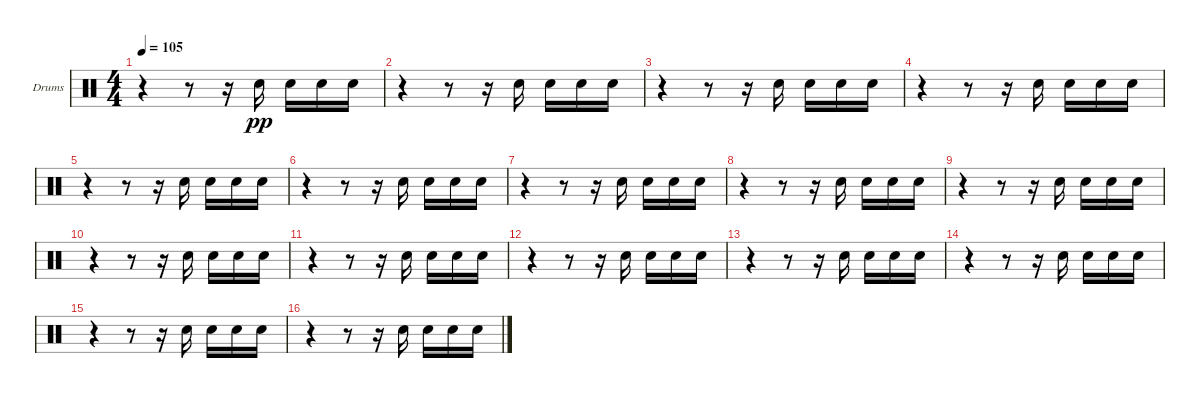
\defaultSystemsLayout 4
\bracketExtendMode groupsimilarinstruments
\firstSystemTrackNameOrientation horizontal
\otherSystemsTrackNameOrientation horizontal
\track ("Drumkit" "Drums") {instrument percussion}
\staff {score}
\articulation defaults
\ts (4 4)
\tempo 105
\clef neutral
\scale
0.333333
\ks c
r.4{dy pp} r.8 r.16 "Snare (hit) 2".16 "Snare (hit) 2".16 "Snare (hit) 2".16 "Snare (hit) 2".16 |
\scale
0.333333 r.4 r.8 r.16 "Snare (hit) 2".16 "Snare (hit) 2".16 "Snare (hit) 2".16 "Snare (hit) 2".16 |
\scale
0.333333 r.4 r.8 r.16 "Snare (hit) 2".16 "Snare (hit) 2".16 "Snare (hit) 2".16 "Snare (hit) 2".16 |
\scale
0.333333 r.4 r.8 r.16 "Snare (hit) 2".16 "Snare (hit) 2".16 "Snare (hit) 2".16 "Snare (hit) 2".16 |
\scale
0.333333 r.4 r.8 r.16 "Snare (hit) 2".16 "Snare (hit) 2".16 "Snare (hit) 2".16 "Snare (hit) 2".16 |
\scale
0.333333 r.4 r.8 r.16 "Snare (hit) 2".16 "Snare (hit) 2".16 "Snare (hit) 2".16 "Snare (hit) 2".16 |
\scale
0.333333 r.4 r.8 r.16 "Snare (hit) 2".16 "Snare (hit) 2".16 "Snare (hit) 2".16 "Snare (hit) 2".16 |
\scale
0.333333 r.4 r.8 r.16 "Snare (hit) 2".16 "Snare (hit) 2".16 "Snare (hit) 2".16 "Snare (hit) 2".16 |
\scale
0.333333 r.4 r.8 r.16 "Snare (hit) 2".16 "Snare (hit) 2".16 "Snare (hit) 2".16 "Snare (hit) 2".16 |
\scale
0.333333 r.4 r.8 r.16 "Snare (hit) 2".16 "Snare (hit) 2".16 "Snare (hit) 2".16 "Snare (hit) 2".16 |
\scale
0.333333 r.4 r.8 r.16 "Snare (hit) 2".16 "Snare (hit) 2".16 "Snare (hit) 2".16 "Snare (hit) 2".16 |
\scale
0.333333 r.4 r.8 r.16 "Snare (hit) 2".16 "Snare (hit) 2".16 "Snare (hit) 2".16 "Snare (hit) 2".16 |
\scale
0.333333 r.4 r.8 r.16 "Snare (hit) 2".16 "Snare (hit) 2".16 "Snare (hit) 2".16 "Snare (hit) 2".16 |
\scale
0.333333 r.4 r.8 r.16 "Snare (hit) 2".16 "Snare (hit) 2".16 "Snare (hit) 2".16 "Snare (hit) 2".16 |
\scale
0.333333 r.4 r.8 r.16 "Snare (hit) 2".16 "Snare (hit) 2".16 "Snare (hit) 2".16 "Snare (hit) 2".16 |
\scale
0.333333 r.4 r.8 r.16 "Snare (hit) 2".16 "Snare (hit) 2".16 "Snare (hit) 2".16 "Snare (hit) 2".16
